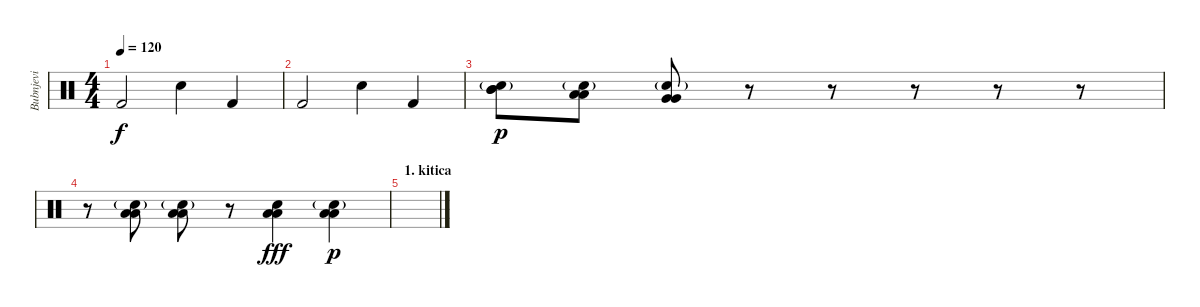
\track ("Bubnjevi" "Bubnjevi") {instrument percussion}
\staff {score}
\articulation defaults
\ts (4 4)
\tempo 120
\clef neutral
\ks c "Kick (hit) 2".2{dy f} "Snare (hit) 2".4 "Kick (hit) 2".4
|
"Kick (hit) 2".2 "Snare (hit) 2".4 "Kick (hit) 2".4 |
("Mid Tom (hit)" "Mid Tom (hit)" "Snare (hit) 2"{g}).8{dy p} ("Low Tom (hit)" "Low Tom (hit)" "Snare (hit) 2"{g}).8 ("Very Low Tom (hit)" "Very Low Tom (hit)" "Snare (hit) 2"{g}).8 r.8 r.8 r.8 r.8 r.8 |
r.8 ("Low Tom (hit)" "Low Tom (hit)" "Snare (hit) 2"{g}).8 ("Low Tom (hit)" "Low Tom (hit)" "Snare (hit) 2"{g}).8 r.8 ("Low Floor Tom (hit)" "Low Floor Tom (hit)" "Snare (hit) 2").4{dy fff} ("Low Floor Tom (hit)" "Low Floor Tom (hit)" "Snare (hit) 2"{g}).4{dy p} |
\section ("" "1. kitica")
